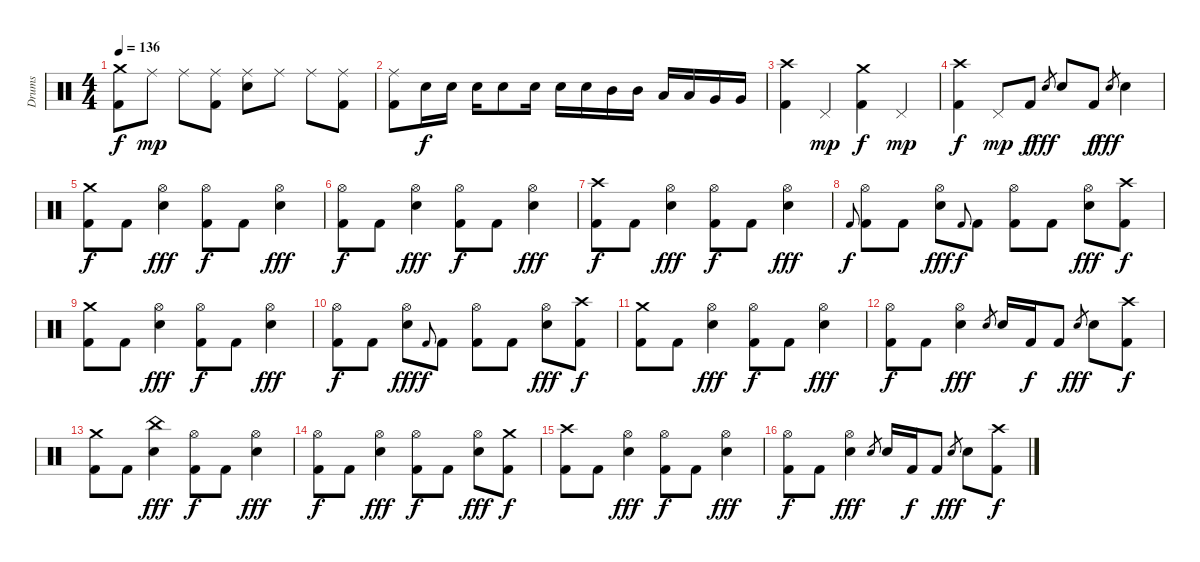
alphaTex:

\track ("Drums" "Drums") {instrument percussion}
\staff {score}
\articulation defaults
\ts (4 4)
\tempo 136
\clef neutral
\ks c
("Crash medium (hit)" "Kick (hit) 2").8{dy f} "Ride (middle)".8{dy mp} "Ride (middle)".8 ("Ride (middle)" "Kick (hit) 2").8 ("Ride (middle)" "Electric Snare (hit)").8 "Ride (middle)".8 "Ride (middle)".8 ("Ride (middle)" "Kick (hit) 2").8 |
("Ride (middle)" "Kick (hit) 2").8 "Electric Snare (hit)".16{dy f} "Electric Snare (hit)".16 "Electric Snare (hit)".16 "Electric Snare (hit)".8 "Electric Snare (hit)".16 "Electric Snare (hit)".16 "Electric Snare (hit)".16 "Mid Tom (hit)".16 "Mid Tom (hit)".16 "Low Tom (hit)".16 "Low Tom (hit)".16 "Very Low Tom (hit)".16 "Very Low Tom (hit)".16 |
("Crash high (hit)" "Kick (hit) 2").4 "Pedal Hi-Hat (hit)".4{dy mp} ("Crash medium (hit)" "Kick (hit) 2").4{dy f} "Pedal Hi-Hat (hit)".4{dy mp} |
("Crash high (hit)" "Kick (hit) 2").4{dy f} "Pedal Hi-Hat (hit)".8{dy mp} "Kick (hit) 2".8{dy f} "Electric Snare (hit)".8{gr dy fff} "Electric Snare (hit)".8 "Kick (hit) 2".8{dy f} "Electric Snare (hit)".8{gr dy fff} "Electric Snare (hit)".4 |
("Crash medium (hit)" "Kick (hit) 2").8{dy f} "Kick (hit) 2".8 ("Hi-Hat (open)" "Electric Snare (hit)").4{dy fff} ("Hi-Hat (open)" "Kick (hit) 2").8{dy f} "Kick (hit) 2".8 ("Hi-Hat (open)" "Electric Snare (hit)").4{dy fff} |
("Hi-Hat (open)" "Kick (hit) 2").8{dy f} "Kick (hit) 2".8 ("Hi-Hat (open)" "Electric Snare (hit)").4{dy fff} ("Hi-Hat (open)" "Kick (hit) 2").8{dy f} "Kick (hit) 2".8 ("Hi-Hat (open)" "Electric Snare (hit)").4{dy fff} |
("Crash high (hit)" "Kick (hit) 2").8{dy f} "Kick (hit) 2".8 ("Hi-Hat (open)" "Electric Snare (hit)").4{dy fff} ("Hi-Hat (open)" "Kick (hit) 2").8{dy f} "Kick (hit) 2".8 ("Hi-Hat (open)" "Electric Snare (hit)").4{dy fff} |
"Kick (hit) 2".8{gr onbeat dy f} ("Hi-Hat (open)" "Kick (hit) 2").8 "Kick (hit) 2".8 ("Hi-Hat (open)" "Electric Snare (hit)").8{dy fff} "Kick (hit) 2".8{gr onbeat dy f} "Kick (hit) 2".8 ("Hi-Hat (open)" "Kick (hit) 2").8 "Kick (hit) 2".8 ("Hi-Hat (open)" "Electric Snare (hit)").8{dy fff} ("Crash high (hit)" "Kick (hit) 2").8{dy f} |
("Crash medium (hit)" "Kick (hit) 2").8 "Kick (hit) 2".8 ("Hi-Hat (open)" "Electric Snare (hit)").4{dy fff} ("Hi-Hat (open)" "Kick (hit) 2").8{dy f} "Kick (hit) 2".8 ("Hi-Hat (open)" "Electric Snare (hit)").4{dy fff} |
("Hi-Hat (open)" "Kick (hit) 2").8{dy f} "Kick (hit) 2".8 ("Hi-Hat (open)" "Electric Snare (hit)").8{dy fff} "Kick (hit) 2".8{gr onbeat dy f} "Kick (hit) 2".8 ("Hi-Hat (open)" "Kick (hit) 2").8 "Kick (hit) 2".8 ("Hi-Hat (open)" "Electric Snare (hit)").8{dy fff} ("Crash high (hit)" "Kick (hit) 2").8{dy f} |
("Crash medium (hit)" "Kick (hit) 2").8 "Kick (hit) 2".8 ("Hi-Hat (open)" "Electric Snare (hit)").4{dy fff} ("Hi-Hat (open)" "Kick (hit) 2").8{dy f} "Kick (hit) 2".8 ("Hi-Hat (open)" "Electric Snare (hit)").4{dy fff} |
("Hi-Hat (open)" "Kick (hit) 2").8{dy f} "Kick (hit) 2".8 ("Hi-Hat (open)" "Electric Snare (hit)").4{dy fff} "Electric Snare (hit)".8{gr} "Electric Snare (hit)".16 "Kick (hit) 2".16{dy f} "Kick (hit) 2".8 "Electric Snare (hit)".8{gr dy fff} "Electric Snare (hit)".8 ("Crash high (hit)" "Kick (hit) 2").8{dy f} |
("Crash medium (hit)" "Kick (hit) 2").8 "Kick (hit) 2".8 ("China (hit)" "Electric Snare (hit)").4{dy fff} ("Hi-Hat (open)" "Kick (hit) 2").8{dy f} "Kick (hit) 2".8 ("Hi-Hat (open)" "Electric Snare (hit)").4{dy fff} |
("Hi-Hat (open)" "Kick (hit) 2").8{dy f} "Kick (hit) 2".8 ("Hi-Hat (open)" "Electric Snare (hit)").4{dy fff} ("Hi-Hat (open)" "Kick (hit) 2").8{dy f} "Kick (hit) 2".8 ("Hi-Hat (open)" "Electric Snare (hit)").8{dy fff} ("Crash medium (hit)" "Kick (hit) 2").8{dy f} |
("Crash high (hit)" "Kick (hit) 2").8 "Kick (hit) 2".8 ("Hi-Hat (open)" "Electric Snare (hit)").4{dy fff} ("Hi-Hat (open)" "Kick (hit) 2").8{dy f} "Kick (hit) 2".8 ("Hi-Hat (open)" "Electric Snare (hit)").4{dy fff} |
("Hi-Hat (open)" "Kick (hit) 2").8{dy f} "Kick (hit) 2".8 ("Hi-Hat (open)" "Electric Snare (hit)").4{dy fff} "Electric Snare (hit)".8{gr} "Electric Snare (hit)".16 "Kick (hit) 2".16{dy f} "Kick (hit) 2".8 "Electric Snare (hit)".8{gr dy fff} "Electric Snare (hit)".8 ("Crash high (hit)" "Kick (hit) 2").8{dy f}
